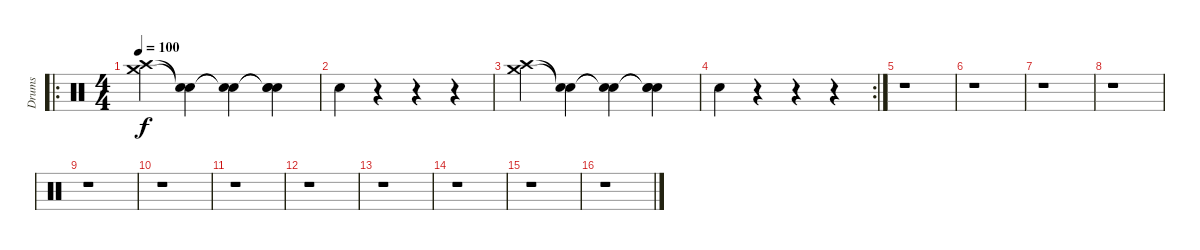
\track ("Drums" "Drums") {instrument percussion}
\staff {score}
\articulation defaults
\ro
\ts (4 4)
\tempo 100
\clef neutral
\ks c
("Crash high (hit)" "Crash medium (hit)").4{dy f} ("Snare (hit)"{t} "Snare (hit)"{t}).4 ("Snare (hit)"{t} "Snare (hit)"{t}).4 ("Snare (hit)"{t} "Snare (hit)"{t} "Metronome (bell)").4 |
"Metronome (bell)".4 r.4 r.4 r.4 |
("Crash high (hit)" "Crash medium (hit)").4 ("Snare (hit)"{t} "Snare (hit)"{t}).4 ("Snare (hit)"{t} "Snare (hit)"{t}).4 ("Snare (hit)"{t} "Snare (hit)"{t} "Metronome (bell)").4 |
\rc 2 "Metronome (bell)".4
r.4 r.4 r.4 |
r.1 |
r.1 |
r.1 |
r.1 |
r.1 |
r.1 |
r.1 |
r.1 |
r.1 |
r.1 |
r.1 |
r.1
